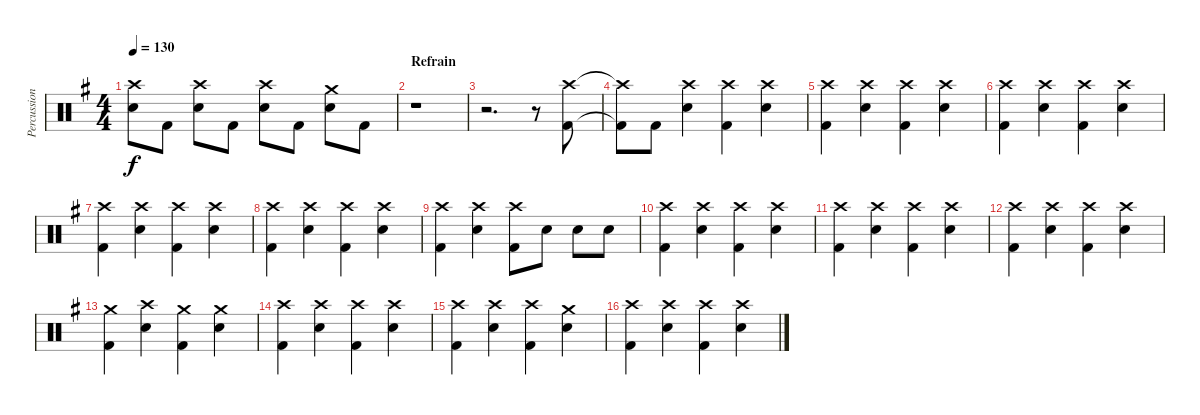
\track ("Percussions" "Percussion") {instrument percussion}
\staff {score}
\articulation defaults
\ts (4 4)
\tempo 130
\clef neutral
\ks eminor
("Crash high (hit)" "Electric Snare (hit)").8{dy f} "Kick (hit) 2".8 ("Crash high (hit)" "Electric Snare (hit)").8 "Kick (hit) 2".8 ("Crash high (hit)" "Electric Snare (hit)").8 "Kick (hit) 2".8 ("Crash medium (hit)" "Electric Snare (hit)").8 "Kick (hit) 2".8 |
\section ("" "Refrain")
r.1 |
r.2{d} r.8 ("Crash high (hit)" "Kick (hit) 2").8 |
("Crash high (hit)"{t} "Kick (hit) 2"{t}).8 "Kick (hit) 2".8 ("Crash high (hit)" "Electric Snare (hit)").4 ("Crash high (hit)" "Kick (hit) 2").4 ("Crash high (hit)" "Electric Snare (hit)").4 |
("Crash high (hit)" "Kick (hit) 2").4 ("Crash high (hit)" "Electric Snare (hit)").4 ("Crash high (hit)" "Kick (hit) 2").4 ("Crash high (hit)" "Electric Snare (hit)").4 |
("Crash high (hit)" "Kick (hit) 2").4 ("Crash high (hit)" "Electric Snare (hit)").4 ("Crash high (hit)" "Kick (hit) 2").4 ("Crash high (hit)" "Electric Snare (hit)").4 |
("Crash high (hit)" "Kick (hit) 2").4 ("Crash high (hit)" "Electric Snare (hit)").4 ("Crash high (hit)" "Kick (hit) 2").4 ("Crash high (hit)" "Electric Snare (hit)").4 |
("Crash high (hit)" "Kick (hit) 2").4 ("Crash high (hit)" "Electric Snare (hit)").4 ("Crash high (hit)" "Kick (hit) 2").4 ("Crash high (hit)" "Electric Snare (hit)").4 |
("Crash high (hit)" "Kick (hit) 2").4 ("Crash high (hit)" "Electric Snare (hit)").4 ("Crash high (hit)" "Kick (hit) 2").8 "Electric Snare (hit)".8 "Electric Snare (hit)".8 "Electric Snare (hit)".8 |
("Crash high (hit)" "Kick (hit) 2").4 ("Crash high (hit)" "Electric Snare (hit)").4 ("Crash high (hit)" "Kick (hit) 2").4 ("Crash high (hit)" "Electric Snare (hit)").4 |
("Crash high (hit)" "Kick (hit) 2").4 ("Crash high (hit)" "Electric Snare (hit)").4 ("Crash high (hit)" "Kick (hit) 2").4 ("Crash high (hit)" "Electric Snare (hit)").4 |
("Crash high (hit)" "Kick (hit) 2").4 ("Crash high (hit)" "Electric Snare (hit)").4 ("Crash high (hit)" "Kick (hit) 2").4 ("Crash high (hit)" "Electric Snare (hit)").4 |
("Crash medium (hit)" "Kick (hit) 2").4 ("Crash high (hit)" "Electric Snare (hit)").4 ("Crash medium (hit)" "Kick (hit) 2").4 ("Crash medium (hit)" "Electric Snare (hit)").4 |
("Crash high (hit)" "Kick (hit) 2").4 ("Crash high (hit)" "Electric Snare (hit)").4 ("Crash high (hit)" "Kick (hit) 2").4 ("Crash high (hit)" "Electric Snare (hit)").4 |
("Crash high (hit)" "Kick (hit) 2").4 ("Crash high (hit)" "Electric Snare (hit)").4 ("Crash high (hit)" "Kick (hit) 2").4 ("Crash medium (hit)" "Electric Snare (hit)").4 |
("Crash high (hit)" "Kick (hit) 2").4 ("Crash high (hit)" "Electric Snare (hit)").4 ("Crash high (hit)" "Kick (hit) 2").4 ("Crash high (hit)" "Electric Snare (hit)").4
